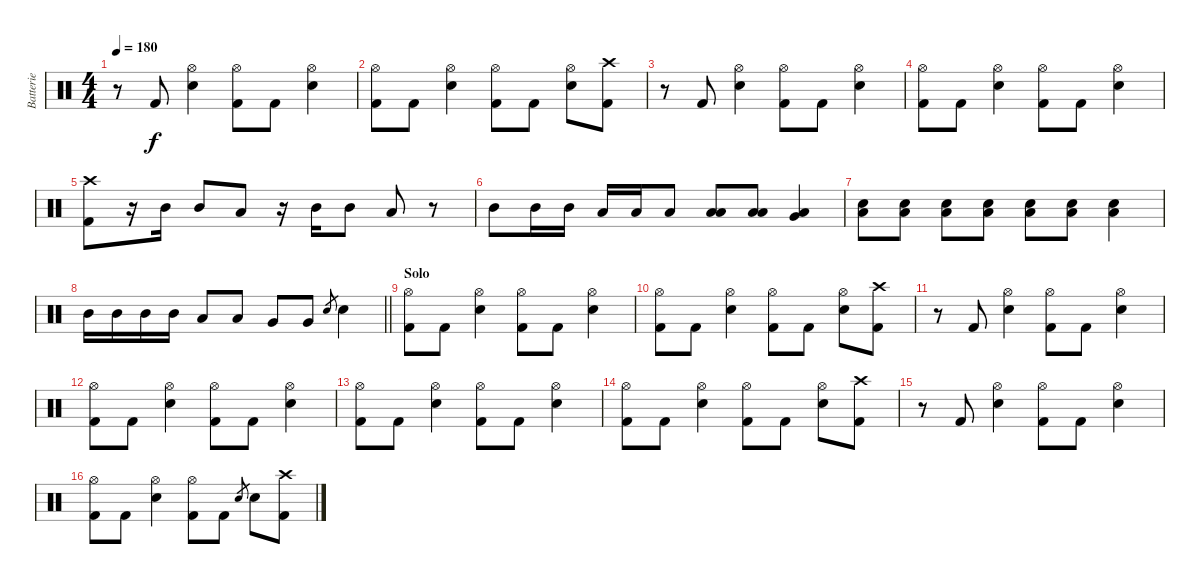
\track ("Batterie" "Batterie") {instrument percussion}
\staff {score}
\articulation defaults
\ts (4 4)
\tempo 180
\clef neutral
\ks c
r.8{dy f} "Kick (hit) 2".8 ("Hi-Hat (open)" "Electric Snare (hit)").4 ("Hi-Hat (open)" "Kick (hit) 2").8 "Kick (hit) 2".8 ("Hi-Hat (open)" "Electric Snare (hit)").4 |
("Hi-Hat (open)" "Kick (hit) 2").8 "Kick (hit) 2".8 ("Hi-Hat (open)" "Electric Snare (hit)").4 ("Hi-Hat (open)" "Kick (hit) 2").8 "Kick (hit) 2".8 ("Hi-Hat (open)" "Electric Snare (hit)").8 ("Crash high (hit)" "Kick (hit) 2").8 |
r.8 "Kick (hit) 2".8 ("Hi-Hat (open)" "Electric Snare (hit)").4 ("Hi-Hat (open)" "Kick (hit) 2").8 "Kick (hit) 2".8 ("Hi-Hat (open)" "Electric Snare (hit)").4 |
("Hi-Hat (open)" "Kick (hit) 2").8 "Kick (hit) 2".8 ("Hi-Hat (open)" "Electric Snare (hit)").4 ("Hi-Hat (open)" "Kick (hit) 2").8 "Kick (hit) 2".8 ("Hi-Hat (open)" "Electric Snare (hit)").4 |
("Crash high (hit)" "Kick (hit) 2").8 r.16 "Mid Tom (hit)".16 "Mid Tom (hit)".8 "Low Tom (hit)".8 r.16 "Mid Tom (hit)".16 "Mid Tom (hit)".8 "Low Tom (hit)".8 r.8 |
"Mid Tom (hit)".8 "Mid Tom (hit)".16 "Mid Tom (hit)".16 "Low Tom (hit)".16 "Low Tom (hit)".16 "Low Tom (hit)".8 ("Low Tom (hit)" "Low Tom (hit)").8 ("Low Tom (hit)" "Low Tom (hit)").8 ("Low Tom (hit)" "Very Low Tom (hit)").4 |
("Electric Snare (hit)" "Low Tom (hit)").8 ("Electric Snare (hit)" "Low Tom (hit)").8 ("Electric Snare (hit)" "Low Tom (hit)").8 ("Electric Snare (hit)" "Low Tom (hit)").8 ("Electric Snare (hit)" "Low Tom (hit)").8 ("Electric Snare (hit)" "Low Tom (hit)").8 ("Electric Snare (hit)" "Low Tom (hit)").4 |
\barLineRight lightlight "Mid Tom (hit)".16 "Mid Tom (hit)".16 "Mid Tom (hit)".16 "Mid Tom (hit)".16 "Low Tom (hit)".8 "Low Tom (hit)".8 "Very Low Tom (hit)".8 "Very Low Tom (hit)".8 "Electric Snare (hit)".8{gr} "Electric Snare (hit)".4
|
\section ("" "Solo")
("Hi-Hat (open)" "Kick (hit) 2").8 "Kick (hit) 2".8 ("Hi-Hat (open)" "Electric Snare (hit)").4 ("Hi-Hat (open)" "Kick (hit) 2").8 "Kick (hit) 2".8 ("Hi-Hat (open)" "Electric Snare (hit)").4 |
("Hi-Hat (open)" "Kick (hit) 2").8 "Kick (hit) 2".8 ("Hi-Hat (open)" "Electric Snare (hit)").4 ("Hi-Hat (open)" "Kick (hit) 2").8 "Kick (hit) 2".8 ("Hi-Hat (open)" "Electric Snare (hit)").8 ("Crash high (hit)" "Kick (hit) 2").8 |
r.8 "Kick (hit) 2".8 ("Hi-Hat (open)" "Electric Snare (hit)").4 ("Hi-Hat (open)" "Kick (hit) 2").8 "Kick (hit) 2".8 ("Hi-Hat (open)" "Electric Snare (hit)").4 |
("Hi-Hat (open)" "Kick (hit) 2").8 "Kick (hit) 2".8 ("Hi-Hat (open)" "Electric Snare (hit)").4 ("Hi-Hat (open)" "Kick (hit) 2").8 "Kick (hit) 2".8 ("Hi-Hat (open)" "Electric Snare (hit)").4 |
("Hi-Hat (open)" "Kick (hit) 2").8 "Kick (hit) 2".8 ("Hi-Hat (open)" "Electric Snare (hit)").4 ("Hi-Hat (open)" "Kick (hit) 2").8 "Kick (hit) 2".8 ("Hi-Hat (open)" "Electric Snare (hit)").4 |
("Hi-Hat (open)" "Kick (hit) 2").8 "Kick (hit) 2".8 ("Hi-Hat (open)" "Electric Snare (hit)").4 ("Hi-Hat (open)" "Kick (hit) 2").8 "Kick (hit) 2".8 ("Hi-Hat (open)" "Electric Snare (hit)").8 ("Crash high (hit)" "Kick (hit) 2").8 |
r.8 "Kick (hit) 2".8 ("Hi-Hat (open)" "Electric Snare (hit)").4 ("Hi-Hat (open)" "Kick (hit) 2").8 "Kick (hit) 2".8 ("Hi-Hat (open)" "Electric Snare (hit)").4 |
("Hi-Hat (open)" "Kick (hit) 2").8 "Kick (hit) 2".8 ("Hi-Hat (open)" "Electric Snare (hit)").4 ("Hi-Hat (open)" "Kick (hit) 2").8 "Kick (hit) 2".8 "Electric Snare (hit)".8{gr} "Electric Snare (hit)".8 ("Crash high (hit)" "Kick (hit) 2").8
